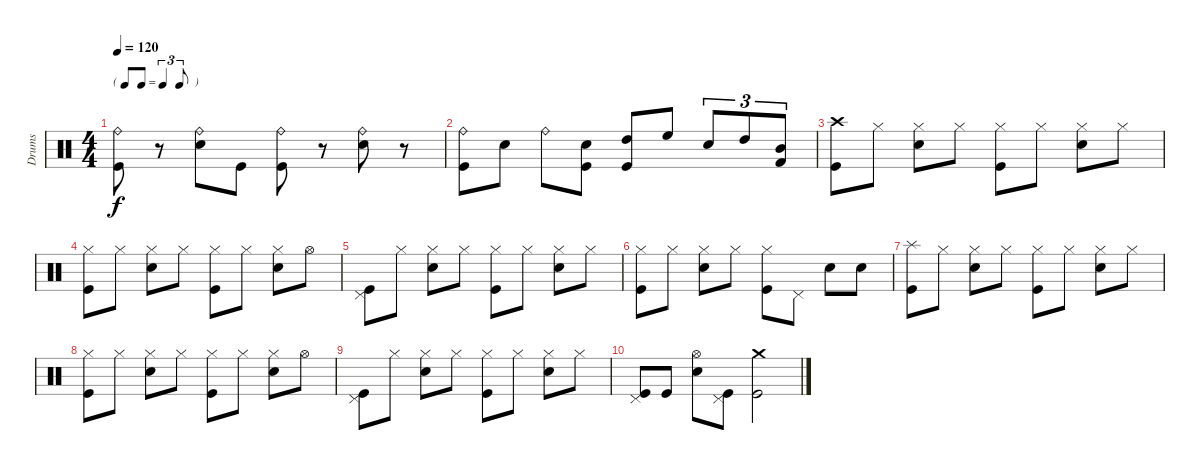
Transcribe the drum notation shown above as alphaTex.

\track ("Drums" "Drums") {instrument percussion}
\staff {score}
\articulation defaults
\ts (4 4)
\tf triplet8th
\tempo 120
\clef neutral
\ks c
("Ride (bell)" "Kick (hit)").8{dy f} r.8 ("Ride (bell)" "Snare (hit) 2").8 "Kick (hit)".8 ("Ride (bell)" "Kick (hit)").8 r.8 ("Ride (bell)" "Snare (hit) 2").8 r.8 |
("Ride (bell)" "Kick (hit)").8 "Snare (hit) 2".8 "Ride (bell)".8 ("Snare (hit) 2" "Kick (hit)").8 ("High Tom (hit)" "Kick (hit)").8 "High Floor Tom (hit)".8 "Snare (hit) 2".8{tu (3 2)} "High Tom (hit)".8{tu (3 2)} ("Mid Tom (hit)" "Kick (hit) 2").8{tu (3 2)} |
("Crash high (hit)" "Kick (hit)").8 "Hi-Hat (closed)".8 ("Hi-Hat (closed)" "Snare (hit) 2").8 "Hi-Hat (closed)".8 ("Hi-Hat (closed)" "Kick (hit)").8 "Hi-Hat (closed)".8 ("Hi-Hat (closed)" "Snare (hit) 2").8 "Hi-Hat (closed)".8 |
("Hi-Hat (closed)" "Kick (hit)").8 "Hi-Hat (closed)".8 ("Hi-Hat (closed)" "Snare (hit) 2").8 "Hi-Hat (closed)".8 ("Hi-Hat (closed)" "Kick (hit)").8 "Hi-Hat (closed)".8 ("Hi-Hat (closed)" "Snare (hit) 2").8 "Hi-Hat (open)".8 |
("Pedal Hi-Hat (hit)" "Kick (hit)").8 "Hi-Hat (closed)".8 ("Hi-Hat (closed)" "Snare (hit) 2").8 "Hi-Hat (closed)".8 ("Hi-Hat (closed)" "Kick (hit)").8 "Hi-Hat (closed)".8 ("Hi-Hat (closed)" "Snare (hit) 2").8 "Hi-Hat (closed)".8 |
("Hi-Hat (closed)" "Kick (hit)").8 "Hi-Hat (closed)".8 ("Hi-Hat (closed)" "Snare (hit) 2").8 "Hi-Hat (closed)".8 ("Hi-Hat (closed)" "Kick (hit)").8 "Pedal Hi-Hat (hit)".8 "Snare (hit) 2".8 "Snare (hit) 2".8 |
("Splash (hit)" "Kick (hit)").8 "Hi-Hat (closed)".8 ("Hi-Hat (closed)" "Snare (hit) 2").8 "Hi-Hat (closed)".8 ("Hi-Hat (closed)" "Kick (hit)").8 "Hi-Hat (closed)".8 ("Hi-Hat (closed)" "Snare (hit) 2").8 "Hi-Hat (closed)".8 |
("Hi-Hat (closed)" "Kick (hit)").8 "Hi-Hat (closed)".8 ("Hi-Hat (closed)" "Snare (hit) 2").8 "Hi-Hat (closed)".8 ("Hi-Hat (closed)" "Kick (hit)").8 "Hi-Hat (closed)".8 ("Hi-Hat (closed)" "Snare (hit) 2").8 "Hi-Hat (open)".8 |
("Pedal Hi-Hat (hit)" "Kick (hit)").8 "Hi-Hat (closed)".8 ("Hi-Hat (closed)" "Snare (hit) 2").8 "Hi-Hat (closed)".8 ("Hi-Hat (closed)" "Kick (hit)").8 "Hi-Hat (closed)".8 ("Hi-Hat (closed)" "Snare (hit) 2").8 "Hi-Hat (closed)".8 |
("Pedal Hi-Hat (hit)" "Kick (hit)").8 "Kick (hit)".8 ("Hi-Hat (open)" "Snare (hit) 2").8 ("Pedal Hi-Hat (hit)" "Kick (hit)").8 ("Crash medium (hit)" "Kick (hit)").2
